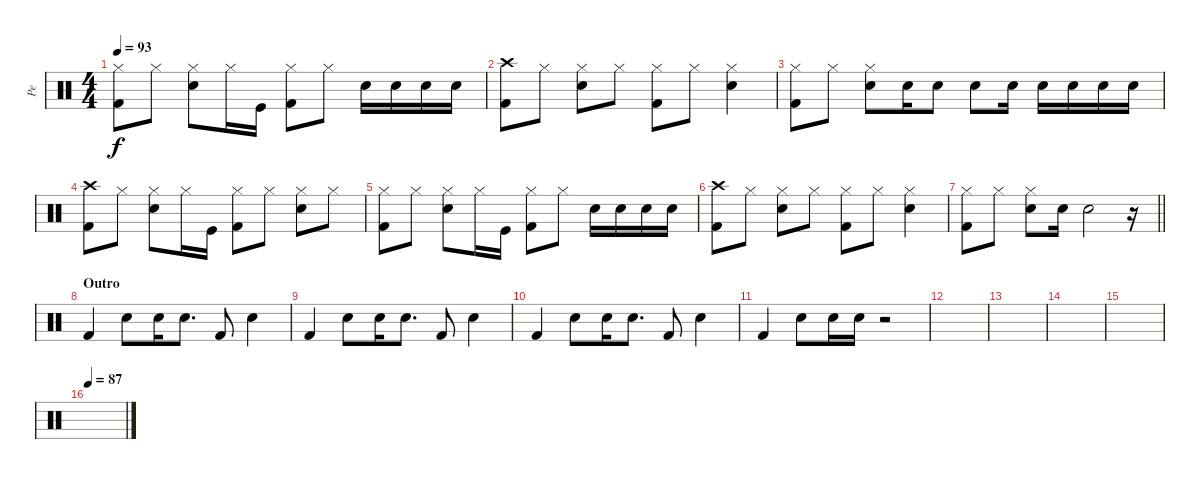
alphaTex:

\track ("Pe" "Pe") {instrument percussion}
\staff {score}
\articulation defaults
\ts (4 4)
\tempo 93
\clef neutral
\ks c
("Kick (hit) 2" "Hi-Hat (closed)").8{dy f} "Hi-Hat (closed)".8 ("Electric Snare (hit)" "Hi-Hat (closed)").8 "Hi-Hat (closed)".16 "Kick (hit)".16 ("Kick (hit) 2" "Hi-Hat (closed)").8 "Hi-Hat (closed)".8 "Electric Snare (hit)".16 "Electric Snare (hit)".16 "Electric Snare (hit)".16 "Electric Snare (hit)".16 |
("Kick (hit) 2" "Crash high (hit)").8 "Hi-Hat (closed)".8 ("Electric Snare (hit)" "Hi-Hat (closed)").8 "Hi-Hat (closed)".8 ("Kick (hit) 2" "Hi-Hat (closed)").8 "Hi-Hat (closed)".8 ("Electric Snare (hit)" "Hi-Hat (closed)").4 |
("Kick (hit) 2" "Hi-Hat (closed)").8 "Hi-Hat (closed)".8 ("Electric Snare (hit)" "Hi-Hat (closed)").8 "Electric Snare (hit)".16 "Electric Snare (hit)".8 "Electric Snare (hit)".8 "Electric Snare (hit)".16 "Electric Snare (hit)".16 "Electric Snare (hit)".16 "Electric Snare (hit)".16 "Electric Snare (hit)".16 |
("Kick (hit) 2" "Crash high (hit)").8 "Hi-Hat (closed)".8 ("Electric Snare (hit)" "Hi-Hat (closed)").8 "Hi-Hat (closed)".16 "Kick (hit)".16 ("Kick (hit) 2" "Hi-Hat (closed)").8 "Hi-Hat (closed)".8 ("Electric Snare (hit)" "Hi-Hat (closed)").8 "Hi-Hat (closed)".8 |
("Kick (hit) 2" "Hi-Hat (closed)").8 "Hi-Hat (closed)".8 ("Electric Snare (hit)" "Hi-Hat (closed)").8 "Hi-Hat (closed)".16 "Kick (hit)".16 ("Kick (hit) 2" "Hi-Hat (closed)").8 "Hi-Hat (closed)".8 "Electric Snare (hit)".16 "Electric Snare (hit)".16 "Electric Snare (hit)".16 "Electric Snare (hit)".16 |
("Kick (hit) 2" "Crash high (hit)").8 "Hi-Hat (closed)".8 ("Electric Snare (hit)" "Hi-Hat (closed)").8 "Hi-Hat (closed)".8 ("Kick (hit) 2" "Hi-Hat (closed)").8 "Hi-Hat (closed)".8 ("Electric Snare (hit)" "Hi-Hat (closed)").4 |
\barLineRight lightlight
("Kick (hit) 2" "Hi-Hat (closed)").8 "Hi-Hat (closed)".8 ("Electric Snare (hit)" "Hi-Hat (closed)").8 "Electric Snare (hit)".16 "Electric Snare (hit)".2 r.16 |
\section ("" "Outro")
"Kick (hit) 2".4{volume 11} "Electric Snare (hit)".8 "Electric Snare (hit)".16 "Electric Snare (hit)".8{d} "Kick (hit) 2".8 "Electric Snare (hit)".4 |
"Kick (hit) 2".4 "Electric Snare (hit)".8 "Electric Snare (hit)".16 "Electric Snare (hit)".8{d} "Kick (hit) 2".8 "Electric Snare (hit)".4 |
"Kick (hit) 2".4 "Electric Snare (hit)".8 "Electric Snare (hit)".16 "Electric Snare (hit)".8{d} "Kick (hit) 2".8 "Electric Snare (hit)".4 |
"Kick (hit) 2".4 "Electric Snare (hit)".8 "Electric Snare (hit)".16 "Electric Snare (hit)".16 r.2 |
|
|
|
|
\tempo 87
